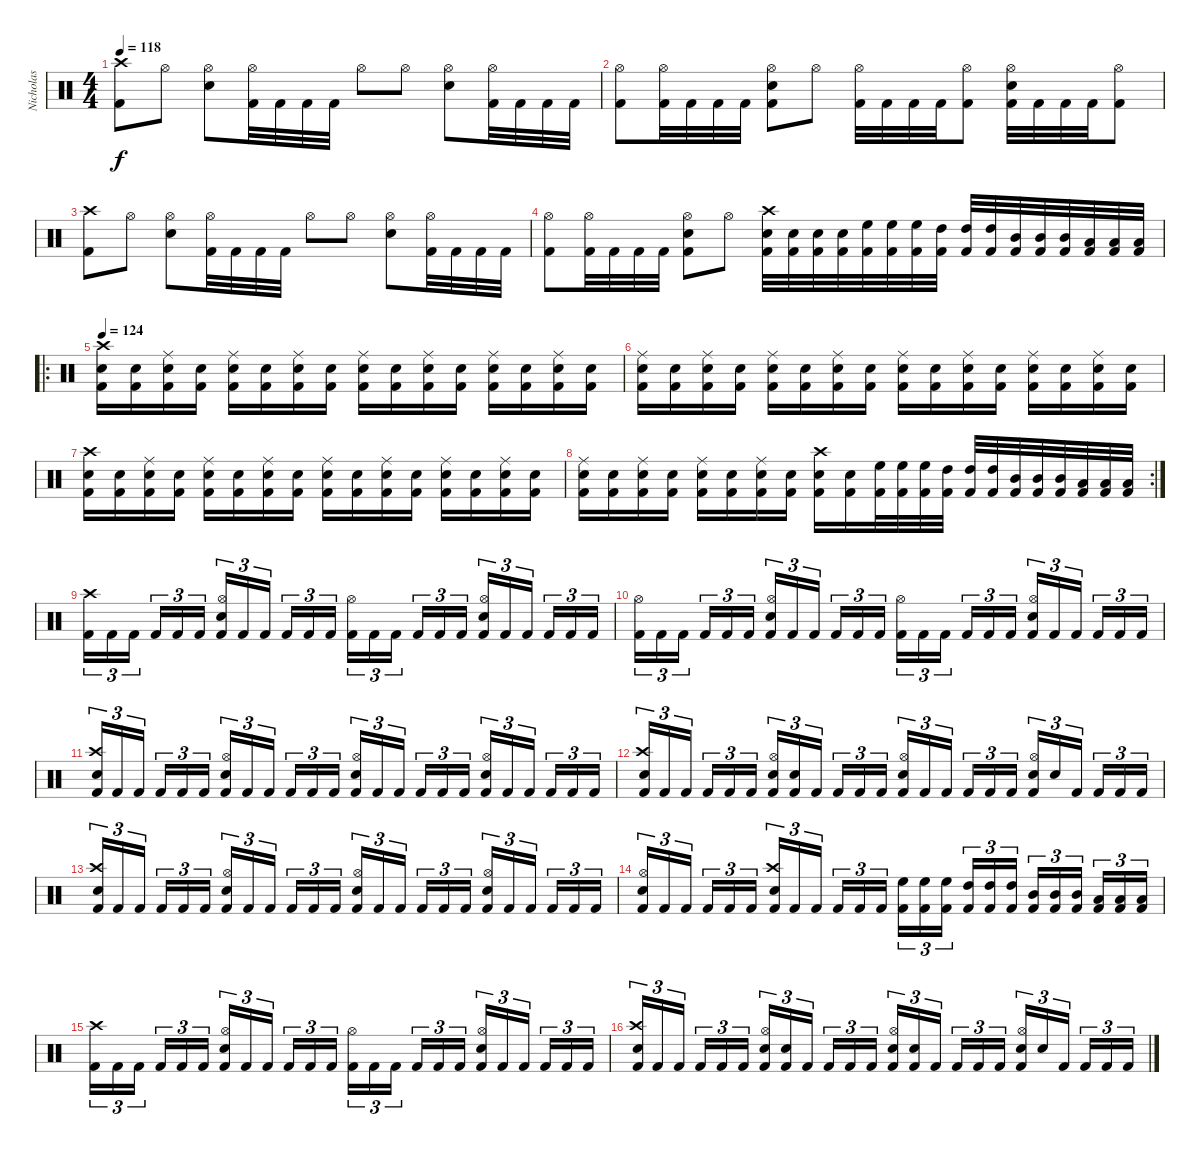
\track ("Nicholas" "Nicholas") {instrument percussion}
\staff {score}
\articulation defaults
\ts (4 4)
\tempo 118
\clef neutral
\ks c
("Kick (hit) 2" "Crash high (hit)").8{dy f} "Hi-Hat (open)".8 ("Snare (hit) 2" "Hi-Hat (open)").8 ("Kick (hit) 2" "Hi-Hat (open)").32 "Kick (hit) 2".32 "Kick (hit) 2".32 "Kick (hit) 2".32 "Hi-Hat (open)".8 "Hi-Hat (open)".8 ("Snare (hit) 2" "Hi-Hat (open)").8 ("Kick (hit) 2" "Hi-Hat (open)").32 "Kick (hit) 2".32 "Kick (hit) 2".32 "Kick (hit) 2".32 |
("Kick (hit) 2" "Hi-Hat (open)").8 ("Kick (hit) 2" "Hi-Hat (open)").32 "Kick (hit) 2".32 "Kick (hit) 2".32 "Kick (hit) 2".32 ("Kick (hit) 2" "Snare (hit) 2" "Hi-Hat (open)").8 "Hi-Hat (open)".8 ("Kick (hit) 2" "Hi-Hat (open)").32 "Kick (hit) 2".32 "Kick (hit) 2".32 "Kick (hit) 2".32 ("Kick (hit) 2" "Hi-Hat (open)").8 ("Kick (hit) 2" "Snare (hit) 2" "Hi-Hat (open)").32 "Kick (hit) 2".32 "Kick (hit) 2".32 "Kick (hit) 2".32 ("Kick (hit) 2" "Hi-Hat (open)").8 |
("Kick (hit) 2" "Crash high (hit)").8 "Hi-Hat (open)".8 ("Snare (hit) 2" "Hi-Hat (open)").8 ("Kick (hit) 2" "Hi-Hat (open)").32 "Kick (hit) 2".32 "Kick (hit) 2".32 "Kick (hit) 2".32 "Hi-Hat (open)".8 "Hi-Hat (open)".8 ("Snare (hit) 2" "Hi-Hat (open)").8 ("Kick (hit) 2" "Hi-Hat (open)").32 "Kick (hit) 2".32 "Kick (hit) 2".32 "Kick (hit) 2".32 |
("Kick (hit) 2" "Hi-Hat (open)").8 ("Kick (hit) 2" "Hi-Hat (open)").32 "Kick (hit) 2".32 "Kick (hit) 2".32 "Kick (hit) 2".32 ("Kick (hit) 2" "Snare (hit) 2" "Hi-Hat (open)").8 "Hi-Hat (open)".8 ("Kick (hit) 2" "Snare (hit) 2" "Crash high (hit)").32 ("Kick (hit) 2" "Snare (hit) 2").32 ("Kick (hit) 2" "Snare (hit) 2").32 ("Kick (hit) 2" "Snare (hit) 2").32 ("Kick (hit) 2" "High Floor Tom (hit)").32 ("Kick (hit) 2" "High Floor Tom (hit)").32 ("Kick (hit) 2" "High Floor Tom (hit)").32 ("Kick (hit) 2" "High Tom (hit)").32 ("Kick (hit) 2" "High Tom (hit)").32 ("Kick (hit) 2" "High Tom (hit)").32 ("Kick (hit) 2" "Mid Tom (hit)").32 ("Kick (hit) 2" "Mid Tom (hit)").32 ("Kick (hit) 2" "Mid Tom (hit)").32 ("Kick (hit) 2" "Low Tom (hit)").32 ("Kick (hit) 2" "Low Tom (hit)").32 ("Kick (hit) 2" "Low Tom (hit)").32 |
\ro
\tempo 124
("Kick (hit) 2" "Snare (hit) 2" "Crash high (hit)").16 ("Kick (hit) 2" "Snare (hit) 2").16 ("Kick (hit) 2" "Snare (hit) 2" "Ride (middle)").16 ("Kick (hit) 2" "Snare (hit) 2").16 ("Kick (hit) 2" "Snare (hit) 2" "Ride (middle)").16 ("Kick (hit) 2" "Snare (hit) 2").16 ("Kick (hit) 2" "Snare (hit) 2" "Ride (middle)").16 ("Kick (hit) 2" "Snare (hit) 2").16 ("Kick (hit) 2" "Snare (hit) 2" "Ride (middle)").16 ("Kick (hit) 2" "Snare (hit) 2").16 ("Kick (hit) 2" "Snare (hit) 2" "Ride (middle)").16 ("Kick (hit) 2" "Snare (hit) 2").16 ("Kick (hit) 2" "Snare (hit) 2" "Ride (middle)").16 ("Kick (hit) 2" "Snare (hit) 2").16 ("Kick (hit) 2" "Snare (hit) 2" "Ride (middle)").16 ("Kick (hit) 2" "Snare (hit) 2").16 |
("Kick (hit) 2" "Snare (hit) 2" "Ride (middle)").16 ("Kick (hit) 2" "Snare (hit) 2").16 ("Kick (hit) 2" "Snare (hit) 2" "Ride (middle)").16 ("Kick (hit) 2" "Snare (hit) 2").16 ("Kick (hit) 2" "Snare (hit) 2" "Ride (middle)").16 ("Kick (hit) 2" "Snare (hit) 2").16 ("Kick (hit) 2" "Snare (hit) 2" "Ride (middle)").16 ("Kick (hit) 2" "Snare (hit) 2").16 ("Kick (hit) 2" "Snare (hit) 2" "Ride (middle)").16 ("Kick (hit) 2" "Snare (hit) 2").16 ("Kick (hit) 2" "Snare (hit) 2" "Ride (middle)").16 ("Kick (hit) 2" "Snare (hit) 2").16 ("Kick (hit) 2" "Snare (hit) 2" "Ride (middle)").16 ("Kick (hit) 2" "Snare (hit) 2").16 ("Kick (hit) 2" "Snare (hit) 2" "Ride (middle)").16 ("Kick (hit) 2" "Snare (hit) 2").16 |
("Kick (hit) 2" "Snare (hit) 2" "Crash high (hit)").16 ("Kick (hit) 2" "Snare (hit) 2").16 ("Kick (hit) 2" "Snare (hit) 2" "Ride (middle)").16 ("Kick (hit) 2" "Snare (hit) 2").16 ("Kick (hit) 2" "Snare (hit) 2" "Ride (middle)").16 ("Kick (hit) 2" "Snare (hit) 2").16 ("Kick (hit) 2" "Snare (hit) 2" "Ride (middle)").16 ("Kick (hit) 2" "Snare (hit) 2").16 ("Kick (hit) 2" "Snare (hit) 2" "Ride (middle)").16 ("Kick (hit) 2" "Snare (hit) 2").16 ("Kick (hit) 2" "Snare (hit) 2" "Ride (middle)").16 ("Kick (hit) 2" "Snare (hit) 2").16 ("Kick (hit) 2" "Snare (hit) 2" "Ride (middle)").16 ("Kick (hit) 2" "Snare (hit) 2").16 ("Kick (hit) 2" "Snare (hit) 2" "Ride (middle)").16 ("Kick (hit) 2" "Snare (hit) 2").16 |
\rc 2
("Kick (hit) 2" "Snare (hit) 2" "Ride (middle)").16 ("Kick (hit) 2" "Snare (hit) 2").16 ("Kick (hit) 2" "Snare (hit) 2" "Ride (middle)").16 ("Kick (hit) 2" "Snare (hit) 2").16 ("Kick (hit) 2" "Snare (hit) 2" "Ride (middle)").16 ("Kick (hit) 2" "Snare (hit) 2").16 ("Kick (hit) 2" "Snare (hit) 2" "Ride (middle)").16 ("Kick (hit) 2" "Snare (hit) 2").16 ("Kick (hit) 2" "Snare (hit) 2" "Crash high (hit)").16 ("Kick (hit) 2" "Snare (hit) 2").16 ("Kick (hit) 2" "High Floor Tom (hit)").32 ("Kick (hit) 2" "High Floor Tom (hit)").32 ("Kick (hit) 2" "High Floor Tom (hit)").32 ("Kick (hit) 2" "High Tom (hit)").32 ("Kick (hit) 2" "High Tom (hit)").32 ("Kick (hit) 2" "High Tom (hit)").32 ("Kick (hit) 2" "Mid Tom (hit)").32 ("Kick (hit) 2" "Mid Tom (hit)").32 ("Kick (hit) 2" "Mid Tom (hit)").32 ("Kick (hit) 2" "Low Tom (hit)").32 ("Kick (hit) 2" "Low Tom (hit)").32 ("Kick (hit) 2" "Low Tom (hit)").32 |
("Kick (hit) 2" "Crash high (hit)").16{tu (3 2)} "Kick (hit) 2".16{tu (3 2)} "Kick (hit) 2".16{tu (3 2)} "Kick (hit) 2".16{tu (3 2)} "Kick (hit) 2".16{tu (3 2)} "Kick (hit) 2".16{tu (3 2)} ("Kick (hit) 2" "Snare (hit) 2" "Hi-Hat (open)").16{tu (3 2)} "Kick (hit) 2".16{tu (3 2)} "Kick (hit) 2".16{tu (3 2)} "Kick (hit) 2".16{tu (3 2)} "Kick (hit) 2".16{tu (3 2)} "Kick (hit) 2".16{tu (3 2)} ("Kick (hit) 2" "Hi-Hat (open)").16{tu (3 2)} "Kick (hit) 2".16{tu (3 2)} "Kick (hit) 2".16{tu (3 2)} "Kick (hit) 2".16{tu (3 2)} "Kick (hit) 2".16{tu (3 2)} "Kick (hit) 2".16{tu (3 2)} ("Kick (hit) 2" "Snare (hit) 2" "Hi-Hat (open)").16{tu (3 2)} "Kick (hit) 2".16{tu (3 2)} "Kick (hit) 2".16{tu (3 2)} "Kick (hit) 2".16{tu (3 2)} "Kick (hit) 2".16{tu (3 2)} "Kick (hit) 2".16{tu (3 2)} |
("Kick (hit) 2" "Hi-Hat (open)").16{tu (3 2)} "Kick (hit) 2".16{tu (3 2)} "Kick (hit) 2".16{tu (3 2)} "Kick (hit) 2".16{tu (3 2)} "Kick (hit) 2".16{tu (3 2)} "Kick (hit) 2".16{tu (3 2)} ("Kick (hit) 2" "Snare (hit) 2" "Hi-Hat (open)").16{tu (3 2)} "Kick (hit) 2".16{tu (3 2)} "Kick (hit) 2".16{tu (3 2)} "Kick (hit) 2".16{tu (3 2)} "Kick (hit) 2".16{tu (3 2)} "Kick (hit) 2".16{tu (3 2)} ("Kick (hit) 2" "Hi-Hat (open)").16{tu (3 2)} "Kick (hit) 2".16{tu (3 2)} "Kick (hit) 2".16{tu (3 2)} "Kick (hit) 2".16{tu (3 2)} "Kick (hit) 2".16{tu (3 2)} "Kick (hit) 2".16{tu (3 2)} ("Kick (hit) 2" "Snare (hit) 2" "Hi-Hat (open)").16{tu (3 2)} "Kick (hit) 2".16{tu (3 2)} "Kick (hit) 2".16{tu (3 2)} "Kick (hit) 2".16{tu (3 2)} "Kick (hit) 2".16{tu (3 2)} "Kick (hit) 2".16{tu (3 2)} |
("Kick (hit) 2" "Snare (hit) 2" "Crash high (hit)").16{tu (3 2)} "Kick (hit) 2".16{tu (3 2)} "Kick (hit) 2".16{tu (3 2)} "Kick (hit) 2".16{tu (3 2)} "Kick (hit) 2".16{tu (3 2)} "Kick (hit) 2".16{tu (3 2)} ("Kick (hit) 2" "Snare (hit) 2" "Hi-Hat (open)").16{tu (3 2)} "Kick (hit) 2".16{tu (3 2)} "Kick (hit) 2".16{tu (3 2)} "Kick (hit) 2".16{tu (3 2)} "Kick (hit) 2".16{tu (3 2)} "Kick (hit) 2".16{tu (3 2)} ("Kick (hit) 2" "Snare (hit) 2" "Hi-Hat (open)").16{tu (3 2)} "Kick (hit) 2".16{tu (3 2)} "Kick (hit) 2".16{tu (3 2)} "Kick (hit) 2".16{tu (3 2)} "Kick (hit) 2".16{tu (3 2)} "Kick (hit) 2".16{tu (3 2)} ("Kick (hit) 2" "Snare (hit) 2" "Hi-Hat (open)").16{tu (3 2)} "Kick (hit) 2".16{tu (3 2)} "Kick (hit) 2".16{tu (3 2)} "Kick (hit) 2".16{tu (3 2)} "Kick (hit) 2".16{tu (3 2)} "Kick (hit) 2".16{tu (3 2)} |
("Kick (hit) 2" "Snare (hit) 2" "Crash high (hit)").16{tu (3 2)} "Kick (hit) 2".16{tu (3 2)} "Kick (hit) 2".16{tu (3 2)} "Kick (hit) 2".16{tu (3 2)} "Kick (hit) 2".16{tu (3 2)} "Kick (hit) 2".16{tu (3 2)} ("Kick (hit) 2" "Snare (hit) 2" "Hi-Hat (open)").16{tu (3 2)} ("Kick (hit) 2" "Snare (hit) 2").16{tu (3 2)} "Kick (hit) 2".16{tu (3 2)} "Kick (hit) 2".16{tu (3 2)} "Kick (hit) 2".16{tu (3 2)} "Kick (hit) 2".16{tu (3 2)} ("Kick (hit) 2" "Snare (hit) 2" "Hi-Hat (open)").16{tu (3 2)} "Kick (hit) 2".16{tu (3 2)} "Kick (hit) 2".16{tu (3 2)} "Kick (hit) 2".16{tu (3 2)} "Kick (hit) 2".16{tu (3 2)} "Kick (hit) 2".16{tu (3 2)} ("Kick (hit) 2" "Snare (hit) 2" "Hi-Hat (open)").16{tu (3 2)} "Snare (hit) 2".16{tu (3 2)} "Kick (hit) 2".16{tu (3 2)} "Kick (hit) 2".16{tu (3 2)} "Kick (hit) 2".16{tu (3 2)} "Kick (hit) 2".16{tu (3 2)} |
("Kick (hit) 2" "Snare (hit) 2" "Crash high (hit)").16{tu (3 2)} "Kick (hit) 2".16{tu (3 2)} "Kick (hit) 2".16{tu (3 2)} "Kick (hit) 2".16{tu (3 2)} "Kick (hit) 2".16{tu (3 2)} "Kick (hit) 2".16{tu (3 2)} ("Kick (hit) 2" "Snare (hit) 2" "Hi-Hat (open)").16{tu (3 2)} "Kick (hit) 2".16{tu (3 2)} "Kick (hit) 2".16{tu (3 2)} "Kick (hit) 2".16{tu (3 2)} "Kick (hit) 2".16{tu (3 2)} "Kick (hit) 2".16{tu (3 2)} ("Kick (hit) 2" "Snare (hit) 2" "Hi-Hat (open)").16{tu (3 2)} "Kick (hit) 2".16{tu (3 2)} "Kick (hit) 2".16{tu (3 2)} "Kick (hit) 2".16{tu (3 2)} "Kick (hit) 2".16{tu (3 2)} "Kick (hit) 2".16{tu (3 2)} ("Kick (hit) 2" "Snare (hit) 2" "Hi-Hat (open)").16{tu (3 2)} "Kick (hit) 2".16{tu (3 2)} "Kick (hit) 2".16{tu (3 2)} "Kick (hit) 2".16{tu (3 2)} "Kick (hit) 2".16{tu (3 2)} "Kick (hit) 2".16{tu (3 2)} |
("Kick (hit) 2" "Snare (hit) 2" "Hi-Hat (open)").16{tu (3 2)} "Kick (hit) 2".16{tu (3 2)} "Kick (hit) 2".16{tu (3 2)} "Kick (hit) 2".16{tu (3 2)} "Kick (hit) 2".16{tu (3 2)} "Kick (hit) 2".16{tu (3 2)} ("Kick (hit) 2" "Snare (hit) 2" "Crash high (hit)").16{tu (3 2)} "Kick (hit) 2".16{tu (3 2)} "Kick (hit) 2".16{tu (3 2)} "Kick (hit) 2".16{tu (3 2)} "Kick (hit) 2".16{tu (3 2)} "Kick (hit) 2".16{tu (3 2)} ("Kick (hit) 2" "High Floor Tom (hit)").16{tu (3 2)} ("Kick (hit) 2" "High Floor Tom (hit)").16{tu (3 2)} ("Kick (hit) 2" "High Floor Tom (hit)").16{tu (3 2)} ("Kick (hit) 2" "High Tom (hit)").16{tu (3 2)} ("Kick (hit) 2" "High Tom (hit)").16{tu (3 2)} ("Kick (hit) 2" "High Tom (hit)").16{tu (3 2)} ("Kick (hit) 2" "Mid Tom (hit)").16{tu (3 2)} ("Kick (hit) 2" "Mid Tom (hit)").16{tu (3 2)} ("Kick (hit) 2" "Mid Tom (hit)").16{tu (3 2)} ("Kick (hit) 2" "Low Tom (hit)").16{tu (3 2)} ("Kick (hit) 2" "Low Tom (hit)").16{tu (3 2)} ("Kick (hit) 2" "Low Tom (hit)").16{tu (3 2)} |
("Kick (hit) 2" "Crash high (hit)").16{tu (3 2)} "Kick (hit) 2".16{tu (3 2)} "Kick (hit) 2".16{tu (3 2)} "Kick (hit) 2".16{tu (3 2)} "Kick (hit) 2".16{tu (3 2)} "Kick (hit) 2".16{tu (3 2)} ("Kick (hit) 2" "Snare (hit) 2" "Hi-Hat (open)").16{tu (3 2)} "Kick (hit) 2".16{tu (3 2)} "Kick (hit) 2".16{tu (3 2)} "Kick (hit) 2".16{tu (3 2)} "Kick (hit) 2".16{tu (3 2)} "Kick (hit) 2".16{tu (3 2)} ("Kick (hit) 2" "Hi-Hat (open)").16{tu (3 2)} "Kick (hit) 2".16{tu (3 2)} "Kick (hit) 2".16{tu (3 2)} "Kick (hit) 2".16{tu (3 2)} "Kick (hit) 2".16{tu (3 2)} "Kick (hit) 2".16{tu (3 2)} ("Kick (hit) 2" "Snare (hit) 2" "Hi-Hat (open)").16{tu (3 2)} "Kick (hit) 2".16{tu (3 2)} "Kick (hit) 2".16{tu (3 2)} "Kick (hit) 2".16{tu (3 2)} "Kick (hit) 2".16{tu (3 2)} "Kick (hit) 2".16{tu (3 2)} |
("Kick (hit) 2" "Snare (hit) 2" "Crash high (hit)").16{tu (3 2)} "Kick (hit) 2".16{tu (3 2)} "Kick (hit) 2".16{tu (3 2)} "Kick (hit) 2".16{tu (3 2)} "Kick (hit) 2".16{tu (3 2)} "Kick (hit) 2".16{tu (3 2)} ("Kick (hit) 2" "Snare (hit) 2" "Hi-Hat (open)").16{tu (3 2)} ("Kick (hit) 2" "Snare (hit) 2").16{tu (3 2)} "Kick (hit) 2".16{tu (3 2)} "Kick (hit) 2".16{tu (3 2)} "Kick (hit) 2".16{tu (3 2)} "Kick (hit) 2".16{tu (3 2)} ("Kick (hit) 2" "Snare (hit) 2" "Hi-Hat (open)").16{tu (3 2)} ("Kick (hit) 2" "Snare (hit) 2").16{tu (3 2)} "Kick (hit) 2".16{tu (3 2)} "Kick (hit) 2".16{tu (3 2)} "Kick (hit) 2".16{tu (3 2)} "Kick (hit) 2".16{tu (3 2)} ("Kick (hit) 2" "Snare (hit) 2" "Hi-Hat (open)").16{tu (3 2)} "Snare (hit) 2".16{tu (3 2)} "Kick (hit) 2".16{tu (3 2)} "Kick (hit) 2".16{tu (3 2)} "Kick (hit) 2".16{tu (3 2)} "Kick (hit) 2".16{tu (3 2)}
